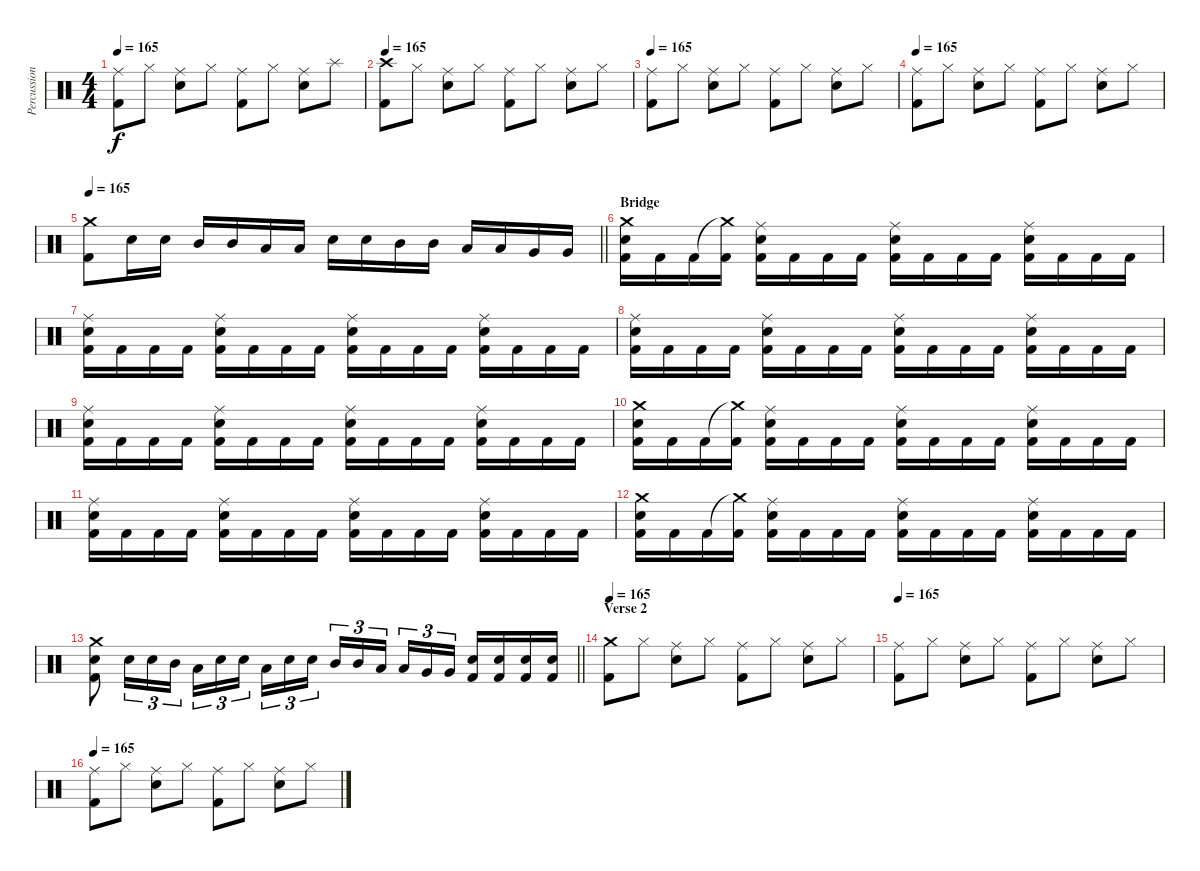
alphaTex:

\track ("Percussion" "Percussion") {instrument percussion}
\staff {score}
\articulation defaults
\ts (4 4)
\tempo 165
\clef neutral
\ks c
("Ride (middle)" "Kick (hit) 2").8{dy f} "Hi-Hat (closed)".8 ("Ride (middle)" "Electric Snare (hit)").8 "Hi-Hat (closed)".8 ("Ride (middle)" "Kick (hit) 2").8 "Hi-Hat (closed)".8 ("Ride (middle)" "Electric Snare (hit)").8 "Splash (hit)".8 |
\tempo 165
("Crash high (hit)" "Kick (hit) 2").8 "Hi-Hat (closed)".8 ("Ride (middle)" "Electric Snare (hit)").8 "Hi-Hat (closed)".8 ("Ride (middle)" "Kick (hit) 2").8 "Hi-Hat (closed)".8 ("Ride (middle)" "Electric Snare (hit)").8 "Hi-Hat (closed)".8 |
\tempo 165
("Ride (middle)" "Kick (hit) 2").8 "Hi-Hat (closed)".8 ("Ride (middle)" "Electric Snare (hit)").8 "Hi-Hat (closed)".8 ("Ride (middle)" "Kick (hit) 2").8 "Hi-Hat (closed)".8 ("Ride (middle)" "Electric Snare (hit)").8 "Hi-Hat (closed)".8 |
\tempo 165
("Ride (middle)" "Kick (hit) 2").8 "Hi-Hat (closed)".8 ("Ride (middle)" "Electric Snare (hit)").8 "Hi-Hat (closed)".8 ("Ride (middle)" "Kick (hit) 2").8 "Hi-Hat (closed)".8 ("Ride (middle)" "Electric Snare (hit)").8 "Hi-Hat (closed)".8 |
\tempo 165
\barLineRight lightlight
("Crash medium (hit)" "Kick (hit) 2").8 "Electric Snare (hit)".16 "Electric Snare (hit)".16 "Mid Tom (hit)".16 "Mid Tom (hit)".16 "Low Tom (hit)".16 "Low Tom (hit)".16 "Electric Snare (hit)".16 "Electric Snare (hit)".16 "Mid Tom (hit)".16 "Mid Tom (hit)".16 "Low Tom (hit)".16 "Low Tom (hit)".16 "Very Low Tom (hit)".16 "Very Low Tom (hit)".16 |
\section ("" "Bridge")
("Crash medium (hit)" "Electric Snare (hit)" "Kick (hit) 2").16 "Kick (hit) 2".16 "Kick (hit) 2".16 ("Crash medium (hit)"{t} "Kick (hit) 2").16 ("Ride (middle)" "Electric Snare (hit)" "Kick (hit) 2").16 "Kick (hit) 2".16 "Kick (hit) 2".16 "Kick (hit) 2".16 ("Ride (middle)" "Electric Snare (hit)" "Kick (hit) 2").16 "Kick (hit) 2".16 "Kick (hit) 2".16 "Kick (hit) 2".16 ("Ride (middle)" "Electric Snare (hit)" "Kick (hit) 2").16 "Kick (hit) 2".16 "Kick (hit) 2".16 "Kick (hit) 2".16 |
("Ride (middle)" "Electric Snare (hit)" "Kick (hit) 2").16 "Kick (hit) 2".16 "Kick (hit) 2".16 "Kick (hit) 2".16 ("Ride (middle)" "Electric Snare (hit)" "Kick (hit) 2").16 "Kick (hit) 2".16 "Kick (hit) 2".16 "Kick (hit) 2".16 ("Ride (middle)" "Electric Snare (hit)" "Kick (hit) 2").16 "Kick (hit) 2".16 "Kick (hit) 2".16 "Kick (hit) 2".16 ("Ride (middle)" "Electric Snare (hit)" "Kick (hit) 2").16 "Kick (hit) 2".16 "Kick (hit) 2".16 "Kick (hit) 2".16 |
("Ride (middle)" "Electric Snare (hit)" "Kick (hit) 2").16 "Kick (hit) 2".16 "Kick (hit) 2".16 "Kick (hit) 2".16 ("Ride (middle)" "Electric Snare (hit)" "Kick (hit) 2").16 "Kick (hit) 2".16 "Kick (hit) 2".16 "Kick (hit) 2".16 ("Ride (middle)" "Electric Snare (hit)" "Kick (hit) 2").16 "Kick (hit) 2".16 "Kick (hit) 2".16 "Kick (hit) 2".16 ("Ride (middle)" "Electric Snare (hit)" "Kick (hit) 2").16 "Kick (hit) 2".16 "Kick (hit) 2".16 "Kick (hit) 2".16 |
("Ride (middle)" "Electric Snare (hit)" "Kick (hit) 2").16 "Kick (hit) 2".16 "Kick (hit) 2".16 "Kick (hit) 2".16 ("Ride (middle)" "Electric Snare (hit)" "Kick (hit) 2").16 "Kick (hit) 2".16 "Kick (hit) 2".16 "Kick (hit) 2".16 ("Ride (middle)" "Electric Snare (hit)" "Kick (hit) 2").16 "Kick (hit) 2".16 "Kick (hit) 2".16 "Kick (hit) 2".16 ("Ride (middle)" "Electric Snare (hit)" "Kick (hit) 2").16 "Kick (hit) 2".16 "Kick (hit) 2".16 "Kick (hit) 2".16 |
("Crash medium (hit)" "Electric Snare (hit)" "Kick (hit) 2").16 "Kick (hit) 2".16 "Kick (hit) 2".16 ("Crash medium (hit)"{t} "Kick (hit) 2").16 ("Ride (middle)" "Electric Snare (hit)" "Kick (hit) 2").16 "Kick (hit) 2".16 "Kick (hit) 2".16 "Kick (hit) 2".16 ("Ride (middle)" "Electric Snare (hit)" "Kick (hit) 2").16 "Kick (hit) 2".16 "Kick (hit) 2".16 "Kick (hit) 2".16 ("Ride (middle)" "Electric Snare (hit)" "Kick (hit) 2").16 "Kick (hit) 2".16 "Kick (hit) 2".16 "Kick (hit) 2".16 |
("Ride (middle)" "Electric Snare (hit)" "Kick (hit) 2").16 "Kick (hit) 2".16 "Kick (hit) 2".16 "Kick (hit) 2".16 ("Ride (middle)" "Electric Snare (hit)" "Kick (hit) 2").16 "Kick (hit) 2".16 "Kick (hit) 2".16 "Kick (hit) 2".16 ("Ride (middle)" "Electric Snare (hit)" "Kick (hit) 2").16 "Kick (hit) 2".16 "Kick (hit) 2".16 "Kick (hit) 2".16 ("Ride (middle)" "Electric Snare (hit)" "Kick (hit) 2").16 "Kick (hit) 2".16 "Kick (hit) 2".16 "Kick (hit) 2".16 |
("Crash medium (hit)" "Electric Snare (hit)" "Kick (hit) 2").16 "Kick (hit) 2".16 "Kick (hit) 2".16 ("Crash medium (hit)"{t} "Kick (hit) 2").16 ("Ride (middle)" "Electric Snare (hit)" "Kick (hit) 2").16 "Kick (hit) 2".16 "Kick (hit) 2".16 "Kick (hit) 2".16 ("Ride (middle)" "Electric Snare (hit)" "Kick (hit) 2").16 "Kick (hit) 2".16 "Kick (hit) 2".16 "Kick (hit) 2".16 ("Ride (middle)" "Electric Snare (hit)" "Kick (hit) 2").16 "Kick (hit) 2".16 "Kick (hit) 2".16 "Kick (hit) 2".16 |
\barLineRight lightlight
("Crash medium (hit)" "Electric Snare (hit)" "Kick (hit) 2").8 "Electric Snare (hit)".16{tu (3 2)} "Electric Snare (hit)".16{tu (3 2)} "Mid Tom (hit)".16{tu (3 2)} "Low Tom (hit)".16{tu (3 2)} "Electric Snare (hit)".16{tu (3 2)} "Electric Snare (hit)".16{tu (3 2) beam splitsecondary} "Low Tom (hit)".16{tu (3 2)} "Electric Snare (hit)".16{tu (3 2)} "Electric Snare (hit)".16{tu (3 2)} "Mid Tom (hit)".16{tu (3 2)} "Mid Tom (hit)".16{tu (3 2)} "Low Tom (hit)".16{tu (3 2) beam splitsecondary} "Low Tom (hit)".16{tu (3 2)} "Very Low Tom (hit)".16{tu (3 2)} "Very Low Tom (hit)".16{tu (3 2)} ("Electric Snare (hit)" "Kick (hit) 2").16 ("Electric Snare (hit)" "Kick (hit) 2").16 ("Electric Snare (hit)" "Kick (hit) 2").16 ("Electric Snare (hit)" "Kick (hit) 2").16 |
\section ("" "Verse 2")
\tempo 165
("Crash medium (hit)" "Kick (hit) 2").8 "Hi-Hat (closed)".8 ("Ride (middle)" "Electric Snare (hit)").8 "Hi-Hat (closed)".8 ("Ride (middle)" "Kick (hit) 2").8 "Hi-Hat (closed)".8 ("Ride (middle)" "Electric Snare (hit)").8 "Hi-Hat (closed)".8 |
\tempo 165
("Ride (middle)" "Kick (hit) 2").8 "Hi-Hat (closed)".8 ("Ride (middle)" "Electric Snare (hit)").8 "Hi-Hat (closed)".8 ("Ride (middle)" "Kick (hit) 2").8 "Hi-Hat (closed)".8 ("Ride (middle)" "Electric Snare (hit)").8 "Hi-Hat (closed)".8 |
\tempo 165
("Ride (middle)" "Kick (hit) 2").8 "Hi-Hat (closed)".8 ("Ride (middle)" "Electric Snare (hit)").8 "Hi-Hat (closed)".8 ("Ride (middle)" "Kick (hit) 2").8 "Hi-Hat (closed)".8 ("Ride (middle)" "Electric Snare (hit)").8 "Hi-Hat (closed)".8
